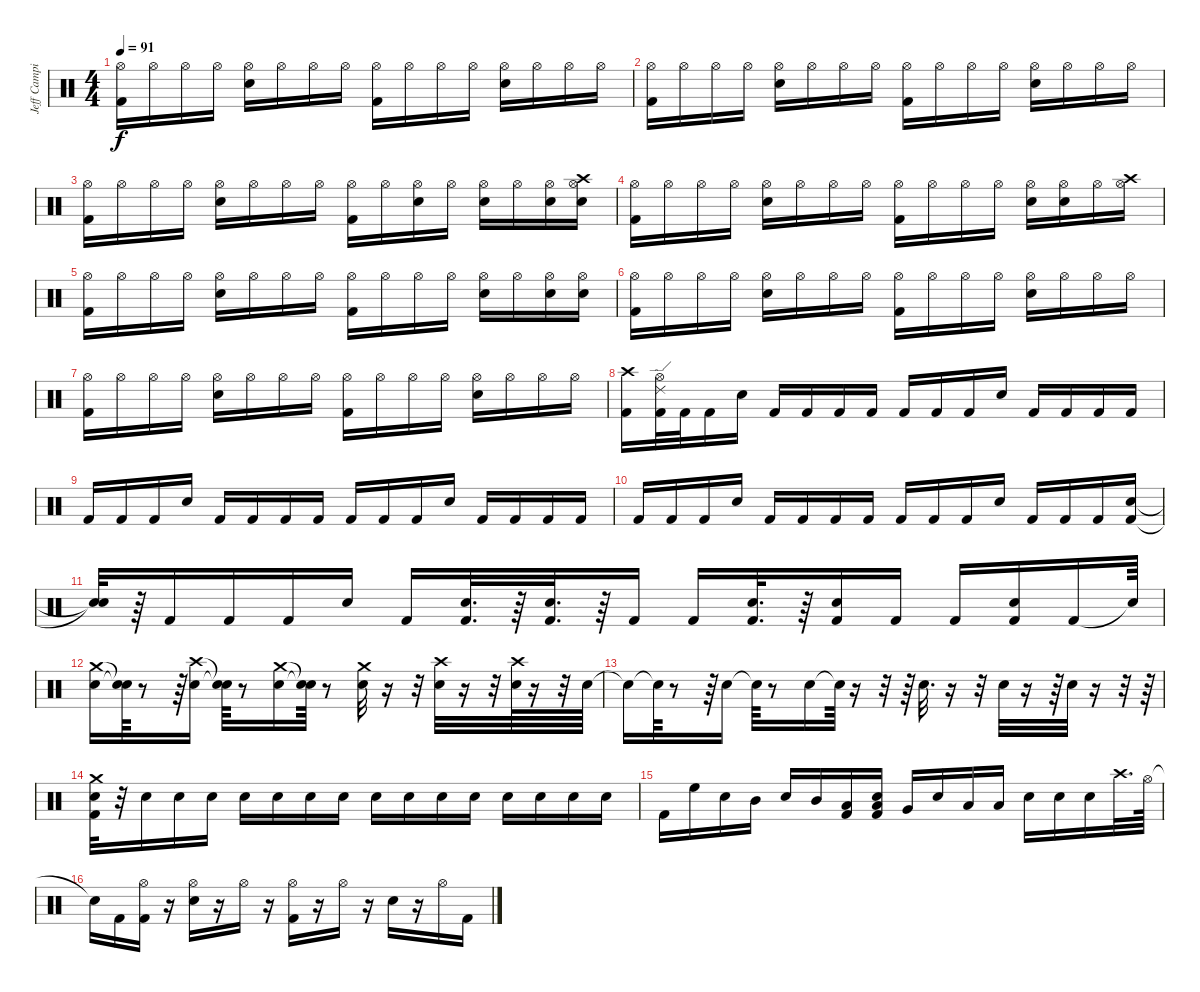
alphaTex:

\track ("Jeff Campitelli" "Jeff Campi") {instrument percussion}
\staff {score}
\articulation defaults
\ts (4 4)
\tempo 91
\clef neutral
\ks c
("Kick (hit) 2" "Hi-Hat (open)").16{dy f} "Hi-Hat (open)".16 "Hi-Hat (open)".16 "Hi-Hat (open)".16 ("Snare (hit) 2" "Hi-Hat (open)").16 "Hi-Hat (open)".16 "Hi-Hat (open)".16 "Hi-Hat (open)".16 ("Kick (hit) 2" "Hi-Hat (open)").16 "Hi-Hat (open)".16 "Hi-Hat (open)".16 "Hi-Hat (open)".16 ("Snare (hit) 2" "Hi-Hat (open)").16 "Hi-Hat (open)".16 "Hi-Hat (open)".16 "Hi-Hat (open)".16 |
("Kick (hit) 2" "Hi-Hat (open)").16 "Hi-Hat (open)".16 "Hi-Hat (open)".16 "Hi-Hat (open)".16 ("Snare (hit) 2" "Hi-Hat (open)").16 "Hi-Hat (open)".16 "Hi-Hat (open)".16 "Hi-Hat (open)".16 ("Kick (hit) 2" "Hi-Hat (open)").16 "Hi-Hat (open)".16 "Hi-Hat (open)".16 "Hi-Hat (open)".16 ("Snare (hit) 2" "Hi-Hat (open)").16 "Hi-Hat (open)".16 "Hi-Hat (open)".16 "Hi-Hat (open)".16 |
("Kick (hit) 2" "Hi-Hat (open)").16 "Hi-Hat (open)".16 "Hi-Hat (open)".16 "Hi-Hat (open)".16 ("Snare (hit) 2" "Hi-Hat (open)").16 "Hi-Hat (open)".16 "Hi-Hat (open)".16 "Hi-Hat (open)".16 ("Kick (hit) 2" "Hi-Hat (open)").16 "Hi-Hat (open)".16 ("Snare (hit) 2" "Hi-Hat (open)").16 "Hi-Hat (open)".16 ("Snare (hit) 2" "Hi-Hat (open)").16 "Hi-Hat (open)".16 ("Snare (hit) 2" "Hi-Hat (open)").16 ("Snare (hit) 2" "Hi-Hat (open)" "Crash high (hit)").16 |
("Kick (hit) 2" "Hi-Hat (open)").16 "Hi-Hat (open)".16 "Hi-Hat (open)".16 "Hi-Hat (open)".16 ("Snare (hit) 2" "Hi-Hat (open)").16 "Hi-Hat (open)".16 "Hi-Hat (open)".16 "Hi-Hat (open)".16 ("Kick (hit) 2" "Hi-Hat (open)").16 "Hi-Hat (open)".16 "Hi-Hat (open)".16 "Hi-Hat (open)".16 ("Snare (hit) 2" "Hi-Hat (open)").16 ("Snare (hit) 2" "Hi-Hat (open)").16 "Hi-Hat (open)".16 ("Hi-Hat (open)" "Crash high (hit)").16 |
("Kick (hit) 2" "Hi-Hat (open)").16 "Hi-Hat (open)".16 "Hi-Hat (open)".16 "Hi-Hat (open)".16 ("Snare (hit) 2" "Hi-Hat (open)").16 "Hi-Hat (open)".16 "Hi-Hat (open)".16 "Hi-Hat (open)".16 ("Kick (hit) 2" "Hi-Hat (open)").16 "Hi-Hat (open)".16 "Hi-Hat (open)".16 "Hi-Hat (open)".16 ("Snare (hit) 2" "Hi-Hat (open)").16 "Hi-Hat (open)".16 ("Snare (hit) 2" "Hi-Hat (open)").16 ("Snare (hit) 2" "Hi-Hat (open)").16 |
("Kick (hit) 2" "Hi-Hat (open)").16 "Hi-Hat (open)".16 "Hi-Hat (open)".16 "Hi-Hat (open)".16 ("Snare (hit) 2" "Hi-Hat (open)").16 "Hi-Hat (open)".16 "Hi-Hat (open)".16 "Hi-Hat (open)".16 ("Kick (hit) 2" "Hi-Hat (open)").16 "Hi-Hat (open)".16 "Hi-Hat (open)".16 "Hi-Hat (open)".16 ("Snare (hit) 2" "Hi-Hat (open)").16 "Hi-Hat (open)".16 "Hi-Hat (open)".16 "Hi-Hat (open)".16 |
("Kick (hit) 2" "Hi-Hat (open)").16 "Hi-Hat (open)".16 "Hi-Hat (open)".16 "Hi-Hat (open)".16 ("Snare (hit) 2" "Hi-Hat (open)").16 "Hi-Hat (open)".16 "Hi-Hat (open)".16 "Hi-Hat (open)".16 ("Kick (hit) 2" "Hi-Hat (open)").16 "Hi-Hat (open)".16 "Hi-Hat (open)".16 "Hi-Hat (open)".16 ("Snare (hit) 2" "Hi-Hat (open)").16 "Hi-Hat (open)".16 "Hi-Hat (open)".16 "Hi-Hat (open)".16 |
("Kick (hit) 2" "Crash high (hit)").16 ("Kick (hit) 2" "Ride (edge) 2" "Hi-Hat (open)").32 "Kick (hit) 2".32 "Kick (hit) 2".16 "Snare (hit) 2".16 "Kick (hit) 2".16 "Kick (hit) 2".16 "Kick (hit) 2".16 "Kick (hit) 2".16 "Kick (hit) 2".16 "Kick (hit) 2".16 "Kick (hit) 2".16 "Snare (hit) 2".16 "Kick (hit) 2".16 "Kick (hit) 2".16 "Kick (hit) 2".16 "Kick (hit) 2".16 |
"Kick (hit) 2".16 "Kick (hit) 2".16 "Kick (hit) 2".16 "Snare (hit) 2".16 "Kick (hit) 2".16 "Kick (hit) 2".16 "Kick (hit) 2".16 "Kick (hit) 2".16 "Kick (hit) 2".16 "Kick (hit) 2".16 "Kick (hit) 2".16 "Snare (hit) 2".16 "Kick (hit) 2".16 "Kick (hit) 2".16 "Kick (hit) 2".16 "Kick (hit) 2".16 |
"Kick (hit) 2".16 "Kick (hit) 2".16 "Kick (hit) 2".16 "Snare (hit) 2".16 "Kick (hit) 2".16 "Kick (hit) 2".16 "Kick (hit) 2".16 "Kick (hit) 2".16 "Kick (hit) 2".16 "Kick (hit) 2".16 "Kick (hit) 2".16 "Snare (hit) 2".16 "Kick (hit) 2".16 "Kick (hit) 2".16 "Kick (hit) 2".16 ("Kick (hit) 2" "Snare (hit) 2").16 |
("Snare (hit)"{t} "Snare (hit)"{t}).32 r.64 "Kick (hit) 2".16 "Kick (hit) 2".16 "Kick (hit) 2".16 "Snare (hit) 2".16 "Kick (hit) 2".16 ("Kick (hit) 2" "Snare (hit) 2").32{d} r.64 ("Kick (hit) 2" "Snare (hit) 2").32{d} r.64 "Kick (hit) 2".16 "Kick (hit) 2".16 ("Kick (hit) 2" "Snare (hit) 2").32{d} r.64 ("Kick (hit) 2" "Snare (hit) 2").16 "Kick (hit) 2".16 "Kick (hit) 2".16 ("Kick (hit) 2" "Snare (hit) 2").16 "Kick (hit) 2".16 "Snare (hit)"{t}.64 |
("Snare (hit) 2" "Crash medium (hit)").16 ("Snare (hit)"{t} "Snare (hit)"{t}).64 r.8 r.64 ("Snare (hit) 2" "Crash high (hit)").16 ("Snare (hit)"{t} "Snare (hit)"{t}).64 r.8 ("Snare (hit) 2" "Crash medium (hit)").16 ("Snare (hit)"{t} "Snare (hit)"{t}).64 r.8 ("Snare (hit) 2" "Crash medium (hit)").32 r.16 r.32 ("Snare (hit) 2" "Crash high (hit)").32 r.16 r.32 ("Snare (hit) 2" "Crash high (hit)").64 r.16 r.32 "Snare (hit) 2".64 |
"Snare (hit)"{t}.16 "Snare (hit)"{t}.64 r.8 r.64 "Snare (hit) 2".16 "Snare (hit)"{t}.64 r.8 "Snare (hit) 2".16 "Snare (hit)"{t}.64 r.16 r.32 r.64 "Snare (hit) 2".32{d} r.16 r.32 "Snare (hit) 2".32 r.16 r.64 "Snare (hit) 2".32 r.16 r.32 r.64 |
("Crash medium (hit)" "Snare (hit) 2" "Kick (hit) 2").32 r.32 "Snare (hit) 2".16 "Snare (hit) 2".16 "Snare (hit) 2".16 "Snare (hit) 2".16 "Snare (hit) 2".16 "Snare (hit) 2".16 "Snare (hit) 2".16 "Snare (hit) 2".16 "Snare (hit) 2".16 "Snare (hit) 2".16 "Snare (hit) 2".16 "Snare (hit) 2".16 "Snare (hit) 2".16 "Snare (hit) 2".16 "Snare (hit) 2".16 |
"Kick (hit) 2".16 "High Floor Tom (hit)".16 "Snare (hit) 2".16 "Mid Tom (hit)".16 "Snare (hit) 2".16 "Mid Tom (hit)".16 ("Low Tom (hit)" "Kick (hit) 2").16 ("Snare (hit) 2" "Low Tom (hit)" "Kick (hit) 2").16 "Very Low Tom (hit)".16 "Snare (hit) 2".16 "Low Floor Tom (hit)".16 "Low Floor Tom (hit)".16 "Snare (hit) 2".16 "Snare (hit) 2".16 "Snare (hit) 2".16 "Crash high (hit)".32{d} "Hi-Hat (open)".64 |
"Snare (hit)"{t}.16 "Kick (hit) 2".16 ("Hi-Hat (open)" "Kick (hit) 2").16 r.16 ("Hi-Hat (open)" "Snare (hit) 2").16 r.16 "Hi-Hat (open)".16 r.16 ("Kick (hit) 2" "Hi-Hat (open)").16 r.16 "Hi-Hat (open)".16 r.16 "Snare (hit) 2".16 r.16 "Hi-Hat (open)".16 "Kick (hit) 2".16
